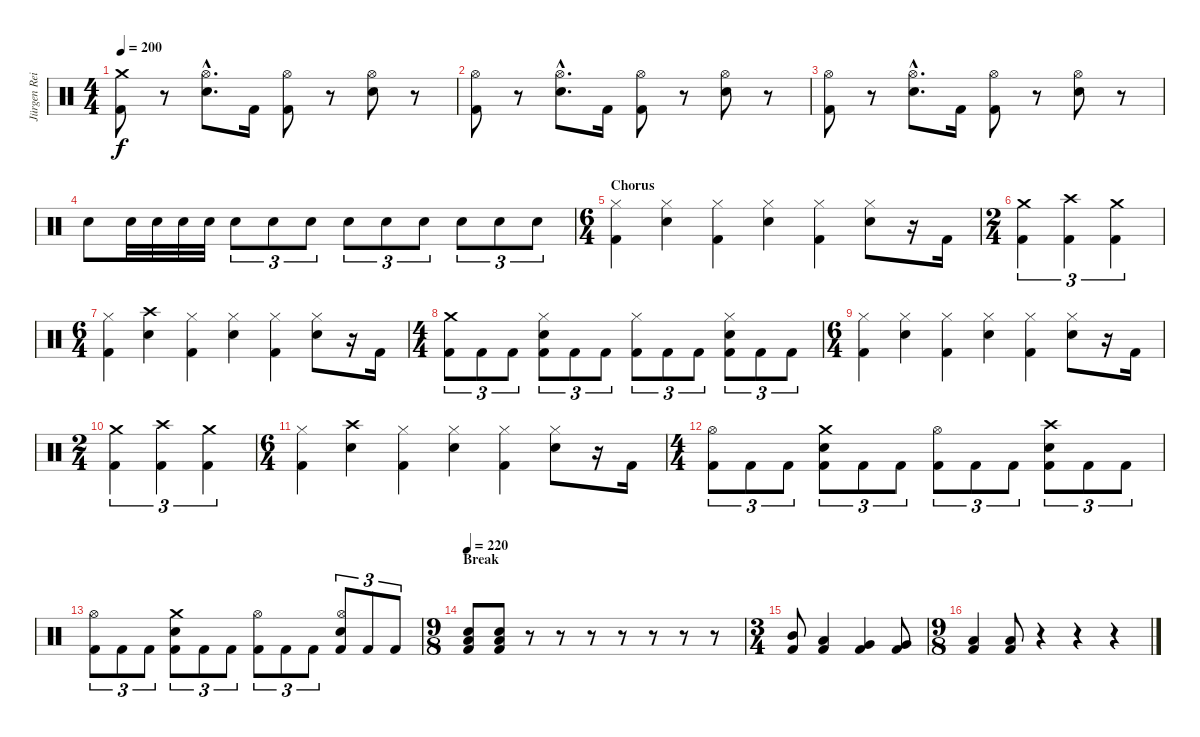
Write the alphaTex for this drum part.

\track ("Jürgen Reil" "Jürgen Rei") {instrument percussion}
\staff {score}
\articulation defaults
\ts (4 4)
\tempo 200
\clef neutral
\ks c
("Crash medium (hit)" "Kick (hit) 2").8{dy f} r.8 ("Hi-Hat (open)"{hac} "Electric Snare (hit)"{hac}).8{d} "Kick (hit) 2".16 ("Hi-Hat (open)" "Kick (hit) 2").8 r.8 ("Hi-Hat (open)" "Electric Snare (hit)").8 r.8 |
("Hi-Hat (open)" "Kick (hit) 2").8 r.8 ("Hi-Hat (open)"{hac} "Electric Snare (hit)"{hac}).8{d} "Kick (hit) 2".16 ("Hi-Hat (open)" "Kick (hit) 2").8 r.8 ("Hi-Hat (open)" "Electric Snare (hit)").8 r.8 |
("Hi-Hat (open)" "Kick (hit) 2").8 r.8 ("Hi-Hat (open)"{hac} "Electric Snare (hit)"{hac}).8{d} "Kick (hit) 2".16 ("Hi-Hat (open)" "Kick (hit) 2").8 r.8 ("Hi-Hat (open)" "Electric Snare (hit)").8 r.8 |
"Electric Snare (hit)".8 "Electric Snare (hit)".32 "Electric Snare (hit)".32 "Electric Snare (hit)".32 "Electric Snare (hit)".32 "Electric Snare (hit)".8{tu (3 2)} "Electric Snare (hit)".8{tu (3 2)} "Electric Snare (hit)".8{tu (3 2)} "Electric Snare (hit)".8{tu (3 2)} "Electric Snare (hit)".8{tu (3 2)} "Electric Snare (hit)".8{tu (3 2)} "Electric Snare (hit)".8{tu (3 2)} "Electric Snare (hit)".8{tu (3 2)} "Electric Snare (hit)".8{tu (3 2)} |
\ts (6 4)
\section ("" "Chorus")
("Hi-Hat (closed)" "Kick (hit) 2").4 ("Hi-Hat (closed)" "Electric Snare (hit)").4 ("Hi-Hat (closed)" "Kick (hit) 2").4 ("Hi-Hat (closed)" "Electric Snare (hit)").4 ("Hi-Hat (closed)" "Kick (hit) 2").4 ("Hi-Hat (closed)" "Electric Snare (hit)").8 r.16 "Kick (hit) 2".16 |
\ts (2 4)
("Crash medium (hit)" "Kick (hit) 2").4{tu (3 2)} ("Crash high (hit)" "Kick (hit) 2").4{tu (3 2)} ("Crash medium (hit)" "Kick (hit) 2").4{tu (3 2)} |
\ts (6 4)
("Hi-Hat (closed)" "Kick (hit) 2").4 ("Crash high (hit)" "Electric Snare (hit)").4 ("Hi-Hat (closed)" "Kick (hit) 2").4 ("Hi-Hat (closed)" "Electric Snare (hit)").4 ("Hi-Hat (closed)" "Kick (hit) 2").4 ("Hi-Hat (closed)" "Electric Snare (hit)").8 r.16 "Kick (hit) 2".16 |
\ts (4 4)
("Crash medium (hit)" "Kick (hit) 2").8{tu (3 2)} "Kick (hit) 2".8{tu (3 2)} "Kick (hit) 2".8{tu (3 2)} ("Hi-Hat (closed)" "Electric Snare (hit)" "Kick (hit) 2").8{tu (3 2)} "Kick (hit) 2".8{tu (3 2)} "Kick (hit) 2".8{tu (3 2)} ("Hi-Hat (closed)" "Kick (hit) 2").8{tu (3 2)} "Kick (hit) 2".8{tu (3 2)} "Kick (hit) 2".8{tu (3 2)} ("Hi-Hat (closed)" "Electric Snare (hit)" "Kick (hit) 2").8{tu (3 2)} "Kick (hit) 2".8{tu (3 2)} "Kick (hit) 2".8{tu (3 2)} |
\ts (6 4)
("Hi-Hat (closed)" "Kick (hit) 2").4 ("Hi-Hat (closed)" "Electric Snare (hit)").4 ("Hi-Hat (closed)" "Kick (hit) 2").4 ("Hi-Hat (closed)" "Electric Snare (hit)").4 ("Hi-Hat (closed)" "Kick (hit) 2").4 ("Hi-Hat (closed)" "Electric Snare (hit)").8 r.16 "Kick (hit) 2".16 |
\ts (2 4)
("Crash medium (hit)" "Kick (hit) 2").4{tu (3 2)} ("Crash high (hit)" "Kick (hit) 2").4{tu (3 2)} ("Crash medium (hit)" "Kick (hit) 2").4{tu (3 2)} |
\ts (6 4)
("Hi-Hat (closed)" "Kick (hit) 2").4 ("Crash high (hit)" "Electric Snare (hit)").4 ("Hi-Hat (closed)" "Kick (hit) 2").4 ("Hi-Hat (closed)" "Electric Snare (hit)").4 ("Hi-Hat (closed)" "Kick (hit) 2").4 ("Hi-Hat (closed)" "Electric Snare (hit)").8 r.16 "Kick (hit) 2".16 |
\ts (4 4)
("Hi-Hat (open)" "Kick (hit) 2").8{tu (3 2)} "Kick (hit) 2".8{tu (3 2)} "Kick (hit) 2".8{tu (3 2)} ("Crash medium (hit)" "Electric Snare (hit)" "Kick (hit) 2").8{tu (3 2)} "Kick (hit) 2".8{tu (3 2)} "Kick (hit) 2".8{tu (3 2)} ("Hi-Hat (open)" "Kick (hit) 2").8{tu (3 2)} "Kick (hit) 2".8{tu (3 2)} "Kick (hit) 2".8{tu (3 2)} ("Crash high (hit)" "Electric Snare (hit)" "Kick (hit) 2").8{tu (3 2)} "Kick (hit) 2".8{tu (3 2)} "Kick (hit) 2".8{tu (3 2)} |
("Hi-Hat (open)" "Kick (hit) 2").8{tu (3 2)} "Kick (hit) 2".8{tu (3 2)} "Kick (hit) 2".8{tu (3 2)} ("Crash medium (hit)" "Electric Snare (hit)" "Kick (hit) 2").8{tu (3 2)} "Kick (hit) 2".8{tu (3 2)} "Kick (hit) 2".8{tu (3 2)} ("Hi-Hat (open)" "Kick (hit) 2").8{tu (3 2)} "Kick (hit) 2".8{tu (3 2)} "Kick (hit) 2".8{tu (3 2)} ("Hi-Hat (open)" "Electric Snare (hit)" "Kick (hit) 2").8{tu (3 2)} "Kick (hit) 2".8{tu (3 2)} "Kick (hit) 2".8{tu (3 2)} |
\ts (9 8)
\section ("" "Break")
\tempo 220
("Low Floor Tom (hit)" "Electric Snare (hit)" "Kick (hit) 2").8 ("Low Floor Tom (hit)" "Electric Snare (hit)" "Kick (hit) 2").8 r.8 r.8 r.8 r.8 r.8 r.8 r.8 |
\ts (3 4)
("Mid Tom (hit)" "Kick (hit) 2").8 ("Low Tom (hit)" "Kick (hit) 2").4 ("Very Low Tom (hit)" "Kick (hit) 2").4 ("Very Low Tom (hit)" "Kick (hit) 2").8 |
\ts (9 8)
("Low Floor Tom (hit)" "Kick (hit) 2").4 ("Low Floor Tom (hit)" "Kick (hit) 2").8 r.4 r.4 r.4
